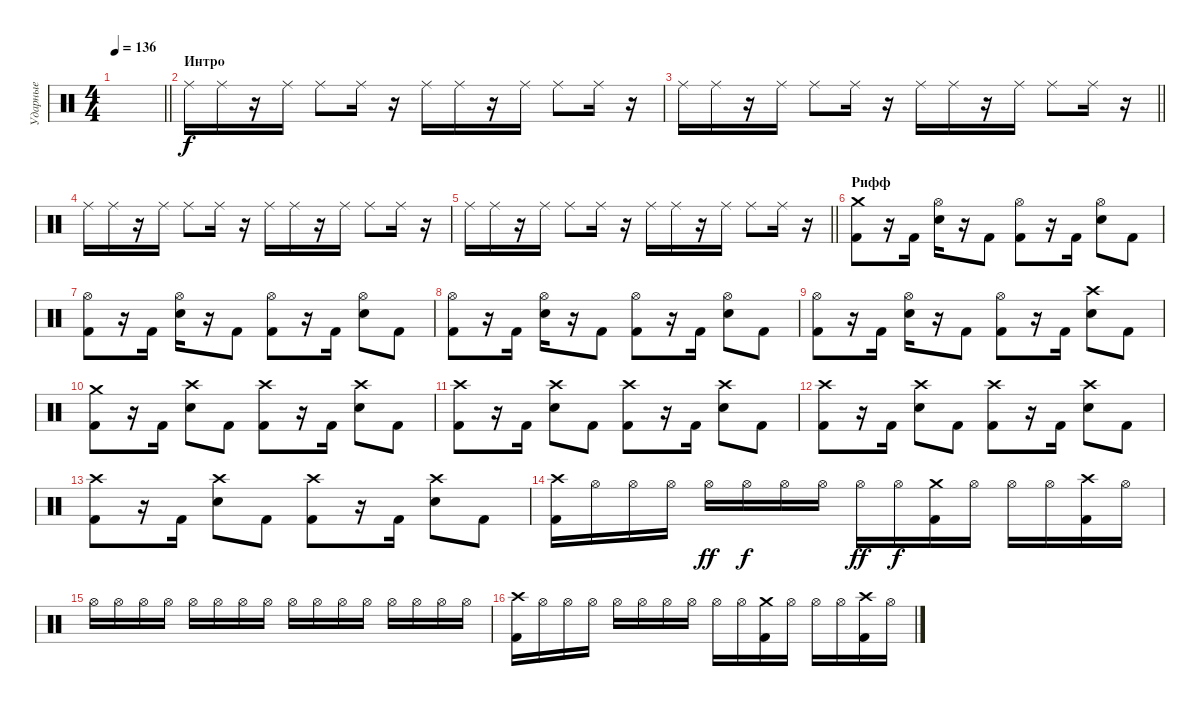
\track ("Ударные" "Ударные") {instrument percussion}
\staff {score}
\articulation defaults
\ts (4 4)
\tempo 136
\clef neutral
\barLineRight lightlight
\ks c
|
\section ("" "Интро")
"Ride (middle)".16 "Ride (middle)".16 r.16 "Ride (middle)".16 "Ride (middle)".8 "Ride (middle)".16 r.16 "Ride (middle)".16 "Ride (middle)".16 r.16 "Ride (middle)".16 "Ride (middle)".8 "Ride (middle)".16 r.16 |
\barLineRight lightlight "Ride (middle)".16 "Ride (middle)".16
r.16 "Ride (middle)".16 "Ride (middle)".8 "Ride (middle)".16 r.16 "Ride (middle)".16 "Ride (middle)".16 r.16 "Ride (middle)".16 "Ride (middle)".8 "Ride (middle)".16 r.16 |
\section ("" "")
"Ride (middle)".16 "Ride (middle)".16 r.16 "Ride (middle)".16 "Ride (middle)".8 "Ride (middle)".16 r.16 "Ride (middle)".16 "Ride (middle)".16 r.16 "Ride (middle)".16 "Ride (middle)".8 "Ride (middle)".16 r.16 |
\barLineRight lightlight "Ride (middle)".16 "Ride (middle)".16
r.16 "Ride (middle)".16 "Ride (middle)".8 "Ride (middle)".16 r.16 "Ride (middle)".16 "Ride (middle)".16 r.16 "Ride (middle)".16 "Ride (middle)".8 "Ride (middle)".16 r.16 |
\section ("" "Рифф")
("Crash medium (hit)" "Kick (hit) 2").8{dy f} r.16 "Kick (hit) 2".16 ("Hi-Hat (open)" "Snare (hit) 2").16 r.16 "Kick (hit) 2".8 ("Hi-Hat (open)" "Kick (hit) 2").8 r.16 "Kick (hit) 2".16 ("Hi-Hat (open)" "Snare (hit) 2").8 "Kick (hit) 2".8 |
("Hi-Hat (open)" "Kick (hit) 2").8 r.16 "Kick (hit) 2".16 ("Hi-Hat (open)" "Snare (hit) 2").16 r.16 "Kick (hit) 2".8 ("Hi-Hat (open)" "Kick (hit) 2").8 r.16 "Kick (hit) 2".16 ("Hi-Hat (open)" "Snare (hit) 2").8 "Kick (hit) 2".8 |
("Hi-Hat (open)" "Kick (hit) 2").8 r.16 "Kick (hit) 2".16 ("Hi-Hat (open)" "Snare (hit) 2").16 r.16 "Kick (hit) 2".8 ("Hi-Hat (open)" "Kick (hit) 2").8 r.16 "Kick (hit) 2".16 ("Hi-Hat (open)" "Snare (hit) 2").8 "Kick (hit) 2".8 |
("Hi-Hat (open)" "Kick (hit) 2").8 r.16 "Kick (hit) 2".16 ("Hi-Hat (open)" "Snare (hit) 2").16 r.16 "Kick (hit) 2".8 ("Hi-Hat (open)" "Kick (hit) 2").8 r.16 "Kick (hit) 2".16 ("Crash high (hit)" "Snare (hit) 2").8 "Kick (hit) 2".8 |
("Crash medium (hit)" "Kick (hit) 2").8 r.16 "Kick (hit) 2".16 ("Crash high (hit)" "Snare (hit) 2").8 "Kick (hit) 2".8 ("Crash high (hit)" "Kick (hit) 2").8 r.16 "Kick (hit) 2".16 ("Crash high (hit)" "Snare (hit) 2").8 "Kick (hit) 2".8 |
("Crash high (hit)" "Kick (hit) 2").8 r.16 "Kick (hit) 2".16 ("Crash high (hit)" "Snare (hit) 2").8 "Kick (hit) 2".8 ("Crash high (hit)" "Kick (hit) 2").8 r.16 "Kick (hit) 2".16 ("Crash high (hit)" "Snare (hit) 2").8 "Kick (hit) 2".8 |
("Crash high (hit)" "Kick (hit) 2").8 r.16 "Kick (hit) 2".16 ("Crash high (hit)" "Snare (hit) 2").8 "Kick (hit) 2".8 ("Crash high (hit)" "Kick (hit) 2").8 r.16 "Kick (hit) 2".16 ("Crash high (hit)" "Snare (hit) 2").8 "Kick (hit) 2".8 |
("Crash high (hit)" "Kick (hit) 2").8 r.16 "Kick (hit) 2".16 ("Crash high (hit)" "Snare (hit) 2").8 "Kick (hit) 2".8 ("Crash high (hit)" "Kick (hit) 2").8 r.16 "Kick (hit) 2".16 ("Crash high (hit)" "Snare (hit) 2").8 "Kick (hit) 2".8 |
("Crash high (hit)" "Kick (hit) 2").16 "Hi-Hat (open)".16 "Hi-Hat (open)".16 "Hi-Hat (open)".16 "Hi-Hat (open)".16{dy ff} "Hi-Hat (open)".16{dy f} "Hi-Hat (open)".16 "Hi-Hat (open)".16 "Hi-Hat (open)".16{dy ff} "Hi-Hat (open)".16{dy f} ("Crash medium (hit)" "Kick (hit) 2").16 "Hi-Hat (open)".16 "Hi-Hat (open)".16 "Hi-Hat (open)".16 ("Crash high (hit)" "Kick (hit) 2").16 "Hi-Hat (open)".16 |
"Hi-Hat (open)".16 "Hi-Hat (open)".16 "Hi-Hat (open)".16 "Hi-Hat (open)".16 "Hi-Hat (open)".16 "Hi-Hat (open)".16 "Hi-Hat (open)".16 "Hi-Hat (open)".16 "Hi-Hat (open)".16 "Hi-Hat (open)".16 "Hi-Hat (open)".16 "Hi-Hat (open)".16 "Hi-Hat (open)".16 "Hi-Hat (open)".16 "Hi-Hat (open)".16 "Hi-Hat (open)".16 |
("Crash high (hit)" "Kick (hit) 2").16 "Hi-Hat (open)".16 "Hi-Hat (open)".16 "Hi-Hat (open)".16 "Hi-Hat (open)".16 "Hi-Hat (open)".16 "Hi-Hat (open)".16 "Hi-Hat (open)".16 "Hi-Hat (open)".16 "Hi-Hat (open)".16 ("Crash medium (hit)" "Kick (hit) 2").16 "Hi-Hat (open)".16 "Hi-Hat (open)".16 "Hi-Hat (open)".16 ("Crash high (hit)" "Kick (hit) 2").16 "Hi-Hat (open)".16
